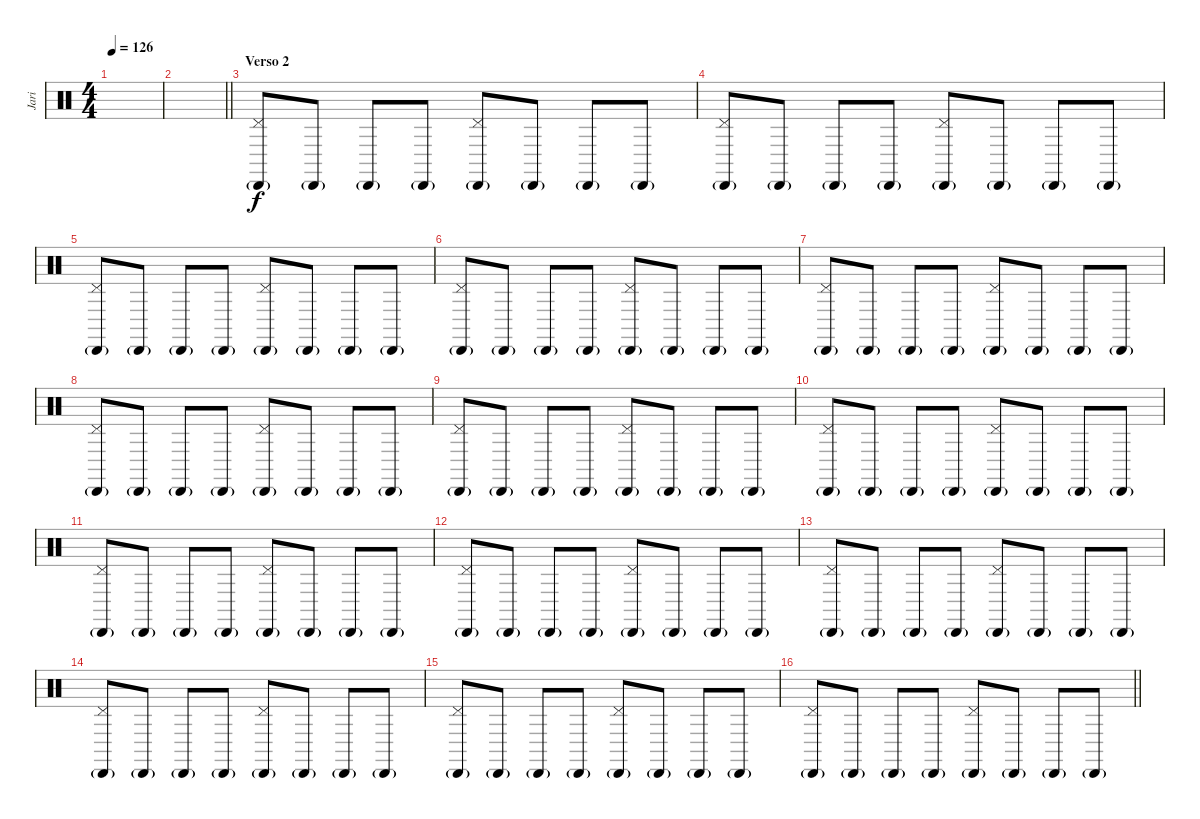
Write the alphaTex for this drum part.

\track ("Jari" "Jari") {instrument percussion}
\staff {score}
\articulation defaults
\ts (4 4)
\tempo 126
\clef neutral
\ks c
|
\barLineRight lightlight
|
\section ("" "Verso 2")
("Pedal Hi-Hat (hit)" "Cabasa (hit)"{g}).8 "Cabasa (hit)"{g}.8 "Cabasa (hit)"{g}.8 "Cabasa (hit)"{g}.8 ("Pedal Hi-Hat (hit)" "Cabasa (hit)"{g}).8 "Cabasa (hit)"{g}.8 "Cabasa (hit)"{g}.8 "Cabasa (hit)"{g}.8 |
("Pedal Hi-Hat (hit)" "Cabasa (hit)"{g}).8 "Cabasa (hit)"{g}.8 "Cabasa (hit)"{g}.8 "Cabasa (hit)"{g}.8 ("Pedal Hi-Hat (hit)" "Cabasa (hit)"{g}).8 "Cabasa (hit)"{g}.8 "Cabasa (hit)"{g}.8 "Cabasa (hit)"{g}.8 |
("Pedal Hi-Hat (hit)" "Cabasa (hit)"{g}).8 "Cabasa (hit)"{g}.8 "Cabasa (hit)"{g}.8 "Cabasa (hit)"{g}.8 ("Pedal Hi-Hat (hit)" "Cabasa (hit)"{g}).8 "Cabasa (hit)"{g}.8 "Cabasa (hit)"{g}.8 "Cabasa (hit)"{g}.8 |
("Pedal Hi-Hat (hit)" "Cabasa (hit)"{g}).8 "Cabasa (hit)"{g}.8 "Cabasa (hit)"{g}.8 "Cabasa (hit)"{g}.8 ("Pedal Hi-Hat (hit)" "Cabasa (hit)"{g}).8 "Cabasa (hit)"{g}.8 "Cabasa (hit)"{g}.8 "Cabasa (hit)"{g}.8 |
("Pedal Hi-Hat (hit)" "Cabasa (hit)"{g}).8 "Cabasa (hit)"{g}.8 "Cabasa (hit)"{g}.8 "Cabasa (hit)"{g}.8 ("Pedal Hi-Hat (hit)" "Cabasa (hit)"{g}).8 "Cabasa (hit)"{g}.8 "Cabasa (hit)"{g}.8 "Cabasa (hit)"{g}.8 |
("Pedal Hi-Hat (hit)" "Cabasa (hit)"{g}).8 "Cabasa (hit)"{g}.8 "Cabasa (hit)"{g}.8 "Cabasa (hit)"{g}.8 ("Pedal Hi-Hat (hit)" "Cabasa (hit)"{g}).8 "Cabasa (hit)"{g}.8 "Cabasa (hit)"{g}.8 "Cabasa (hit)"{g}.8 |
("Pedal Hi-Hat (hit)" "Cabasa (hit)"{g}).8 "Cabasa (hit)"{g}.8 "Cabasa (hit)"{g}.8 "Cabasa (hit)"{g}.8 ("Pedal Hi-Hat (hit)" "Cabasa (hit)"{g}).8 "Cabasa (hit)"{g}.8 "Cabasa (hit)"{g}.8 "Cabasa (hit)"{g}.8 |
("Pedal Hi-Hat (hit)" "Cabasa (hit)"{g}).8 "Cabasa (hit)"{g}.8 "Cabasa (hit)"{g}.8 "Cabasa (hit)"{g}.8 ("Pedal Hi-Hat (hit)" "Cabasa (hit)"{g}).8 "Cabasa (hit)"{g}.8 "Cabasa (hit)"{g}.8 "Cabasa (hit)"{g}.8 |
("Pedal Hi-Hat (hit)" "Cabasa (hit)"{g}).8 "Cabasa (hit)"{g}.8 "Cabasa (hit)"{g}.8 "Cabasa (hit)"{g}.8 ("Pedal Hi-Hat (hit)" "Cabasa (hit)"{g}).8 "Cabasa (hit)"{g}.8 "Cabasa (hit)"{g}.8 "Cabasa (hit)"{g}.8 |
("Pedal Hi-Hat (hit)" "Cabasa (hit)"{g}).8 "Cabasa (hit)"{g}.8 "Cabasa (hit)"{g}.8 "Cabasa (hit)"{g}.8 ("Pedal Hi-Hat (hit)" "Cabasa (hit)"{g}).8 "Cabasa (hit)"{g}.8 "Cabasa (hit)"{g}.8 "Cabasa (hit)"{g}.8 |
("Pedal Hi-Hat (hit)" "Cabasa (hit)"{g}).8 "Cabasa (hit)"{g}.8 "Cabasa (hit)"{g}.8 "Cabasa (hit)"{g}.8 ("Pedal Hi-Hat (hit)" "Cabasa (hit)"{g}).8 "Cabasa (hit)"{g}.8 "Cabasa (hit)"{g}.8 "Cabasa (hit)"{g}.8 |
("Pedal Hi-Hat (hit)" "Cabasa (hit)"{g}).8 "Cabasa (hit)"{g}.8 "Cabasa (hit)"{g}.8 "Cabasa (hit)"{g}.8 ("Pedal Hi-Hat (hit)" "Cabasa (hit)"{g}).8 "Cabasa (hit)"{g}.8 "Cabasa (hit)"{g}.8 "Cabasa (hit)"{g}.8 |
("Pedal Hi-Hat (hit)" "Cabasa (hit)"{g}).8 "Cabasa (hit)"{g}.8 "Cabasa (hit)"{g}.8 "Cabasa (hit)"{g}.8 ("Pedal Hi-Hat (hit)" "Cabasa (hit)"{g}).8 "Cabasa (hit)"{g}.8 "Cabasa (hit)"{g}.8 "Cabasa (hit)"{g}.8 |
\barLineRight lightlight
("Pedal Hi-Hat (hit)" "Cabasa (hit)"{g}).8 "Cabasa (hit)"{g}.8 "Cabasa (hit)"{g}.8 "Cabasa (hit)"{g}.8 ("Pedal Hi-Hat (hit)" "Cabasa (hit)"{g}).8 "Cabasa (hit)"{g}.8 "Cabasa (hit)"{g}.8 "Cabasa (hit)"{g}.8
